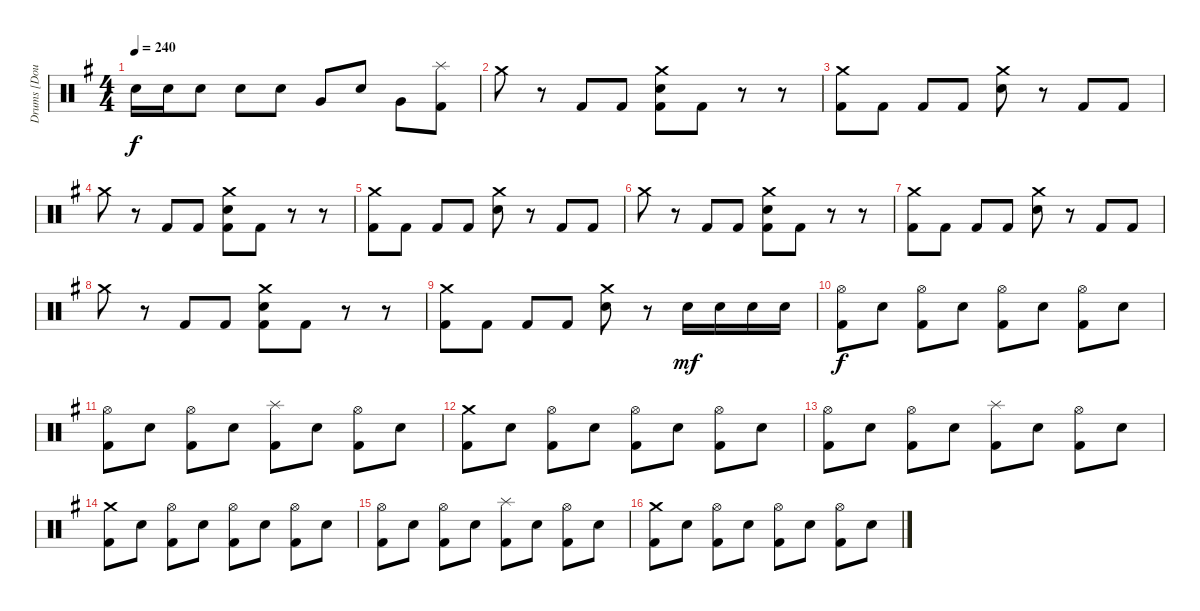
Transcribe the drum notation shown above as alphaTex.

\track ("Drums [Doug Anderson]" "Drums [Dou") {instrument percussion}
\staff {score}
\articulation defaults
\ts (4 4)
\tempo 240
\clef neutral
\ks eminor "Electric Snare (hit)".16{dy f} "Electric Snare (hit)".16 "Electric Snare (hit)".8 "Electric Snare (hit)".8 "Electric Snare (hit)".8 "Very Low Tom (hit)".8 "Electric Snare (hit)".8 "Very Low Tom (hit)".8
("Splash (hit)" "Kick (hit) 2").8 |
"Crash medium (hit)".8 r.8 "Kick (hit) 2".8 "Kick (hit) 2".8 ("Crash medium (hit)" "Electric Snare (hit)" "Kick (hit) 2").8 "Kick (hit) 2".8 r.8 r.8 |
("Crash medium (hit)" "Kick (hit) 2").8 "Kick (hit) 2".8 "Kick (hit) 2".8 "Kick (hit) 2".8 ("Crash medium (hit)" "Electric Snare (hit)").8 r.8 "Kick (hit) 2".8 "Kick (hit) 2".8 |
"Crash medium (hit)".8 r.8 "Kick (hit) 2".8 "Kick (hit) 2".8 ("Crash medium (hit)" "Electric Snare (hit)" "Kick (hit) 2").8 "Kick (hit) 2".8 r.8 r.8 |
("Crash medium (hit)" "Kick (hit) 2").8 "Kick (hit) 2".8 "Kick (hit) 2".8 "Kick (hit) 2".8 ("Crash medium (hit)" "Electric Snare (hit)").8 r.8 "Kick (hit) 2".8 "Kick (hit) 2".8 |
"Crash medium (hit)".8 r.8 "Kick (hit) 2".8 "Kick (hit) 2".8 ("Crash medium (hit)" "Electric Snare (hit)" "Kick (hit) 2").8 "Kick (hit) 2".8 r.8 r.8 |
("Crash medium (hit)" "Kick (hit) 2").8 "Kick (hit) 2".8 "Kick (hit) 2".8 "Kick (hit) 2".8 ("Crash medium (hit)" "Electric Snare (hit)").8 r.8 "Kick (hit) 2".8 "Kick (hit) 2".8 |
"Crash medium (hit)".8 r.8 "Kick (hit) 2".8 "Kick (hit) 2".8 ("Crash medium (hit)" "Electric Snare (hit)" "Kick (hit) 2").8 "Kick (hit) 2".8 r.8 r.8 |
("Crash medium (hit)" "Kick (hit) 2").8 "Kick (hit) 2".8 "Kick (hit) 2".8 "Kick (hit) 2".8 ("Crash medium (hit)" "Electric Snare (hit)").8 r.8 "Electric Snare (hit)".16{dy mf} "Electric Snare (hit)".16 "Electric Snare (hit)".16 "Electric Snare (hit)".16 |
("Hi-Hat (open)" "Kick (hit) 2").8{dy f} "Electric Snare (hit)".8 ("Hi-Hat (open)" "Kick (hit) 2").8 "Electric Snare (hit)".8 ("Hi-Hat (open)" "Kick (hit) 2").8 "Electric Snare (hit)".8 ("Hi-Hat (open)" "Kick (hit) 2").8 "Electric Snare (hit)".8 |
("Hi-Hat (open)" "Kick (hit) 2").8 "Electric Snare (hit)".8 ("Hi-Hat (open)" "Kick (hit) 2").8 "Electric Snare (hit)".8 ("Splash (hit)" "Kick (hit) 2").8 "Electric Snare (hit)".8 ("Hi-Hat (open)" "Kick (hit) 2").8 "Electric Snare (hit)".8 |
("Crash medium (hit)" "Kick (hit) 2").8 "Electric Snare (hit)".8 ("Hi-Hat (open)" "Kick (hit) 2").8 "Electric Snare (hit)".8 ("Hi-Hat (open)" "Kick (hit) 2").8 "Electric Snare (hit)".8 ("Hi-Hat (open)" "Kick (hit) 2").8 "Electric Snare (hit)".8 |
("Hi-Hat (open)" "Kick (hit) 2").8 "Electric Snare (hit)".8 ("Hi-Hat (open)" "Kick (hit) 2").8 "Electric Snare (hit)".8 ("Splash (hit)" "Kick (hit) 2").8 "Electric Snare (hit)".8 ("Hi-Hat (open)" "Kick (hit) 2").8 "Electric Snare (hit)".8 |
("Crash medium (hit)" "Kick (hit) 2").8 "Electric Snare (hit)".8 ("Hi-Hat (open)" "Kick (hit) 2").8 "Electric Snare (hit)".8 ("Hi-Hat (open)" "Kick (hit) 2").8 "Electric Snare (hit)".8 ("Hi-Hat (open)" "Kick (hit) 2").8 "Electric Snare (hit)".8 |
("Hi-Hat (open)" "Kick (hit) 2").8 "Electric Snare (hit)".8 ("Hi-Hat (open)" "Kick (hit) 2").8 "Electric Snare (hit)".8 ("Splash (hit)" "Kick (hit) 2").8 "Electric Snare (hit)".8 ("Hi-Hat (open)" "Kick (hit) 2").8 "Electric Snare (hit)".8 |
("Crash medium (hit)" "Kick (hit) 2").8 "Electric Snare (hit)".8 ("Hi-Hat (open)" "Kick (hit) 2").8 "Electric Snare (hit)".8 ("Hi-Hat (open)" "Kick (hit) 2").8 "Electric Snare (hit)".8 ("Hi-Hat (open)" "Kick (hit) 2").8 "Electric Snare (hit)".8
